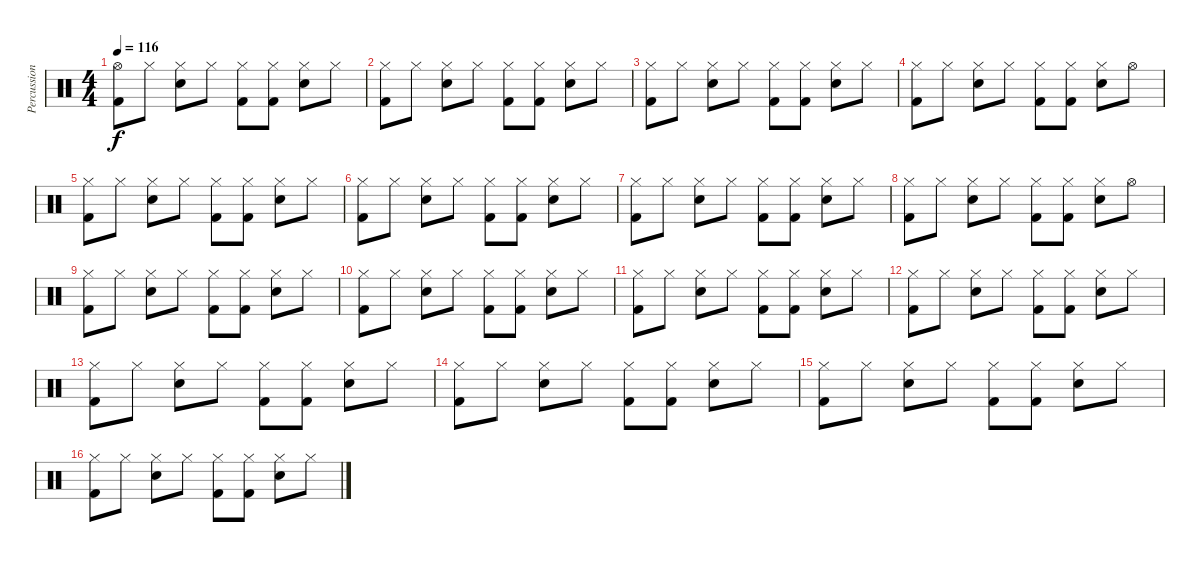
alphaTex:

\track ("Percussion" "Percussion") {instrument percussion}
\staff {score}
\articulation defaults
\ts (4 4)
\tempo 116
\clef neutral
\ks c
("Hi-Hat (open)" "Kick (hit) 2").8{dy f} "Hi-Hat (closed)".8 ("Hi-Hat (closed)" "Snare (hit) 2").8 "Hi-Hat (closed)".8 ("Hi-Hat (closed)" "Kick (hit) 2").8 ("Hi-Hat (closed)" "Kick (hit) 2").8 ("Hi-Hat (closed)" "Snare (hit) 2").8 "Hi-Hat (closed)".8 |
("Hi-Hat (closed)" "Kick (hit) 2").8 "Hi-Hat (closed)".8 ("Hi-Hat (closed)" "Snare (hit) 2").8 "Hi-Hat (closed)".8 ("Hi-Hat (closed)" "Kick (hit) 2").8 ("Hi-Hat (closed)" "Kick (hit) 2").8 ("Hi-Hat (closed)" "Snare (hit) 2").8 "Hi-Hat (closed)".8 |
("Hi-Hat (closed)" "Kick (hit) 2").8 "Hi-Hat (closed)".8 ("Hi-Hat (closed)" "Snare (hit) 2").8 "Hi-Hat (closed)".8 ("Hi-Hat (closed)" "Kick (hit) 2").8 ("Hi-Hat (closed)" "Kick (hit) 2").8 ("Hi-Hat (closed)" "Snare (hit) 2").8 "Hi-Hat (closed)".8 |
("Hi-Hat (closed)" "Kick (hit) 2").8 "Hi-Hat (closed)".8 ("Hi-Hat (closed)" "Snare (hit) 2").8 "Hi-Hat (closed)".8 ("Hi-Hat (closed)" "Kick (hit) 2").8 ("Hi-Hat (closed)" "Kick (hit) 2").8 ("Hi-Hat (closed)" "Snare (hit) 2").8 "Hi-Hat (open)".8 |
("Hi-Hat (closed)" "Kick (hit) 2").8 "Hi-Hat (closed)".8 ("Hi-Hat (closed)" "Snare (hit) 2").8 "Hi-Hat (closed)".8 ("Hi-Hat (closed)" "Kick (hit) 2").8 ("Hi-Hat (closed)" "Kick (hit) 2").8 ("Hi-Hat (closed)" "Snare (hit) 2").8 "Hi-Hat (closed)".8 |
("Hi-Hat (closed)" "Kick (hit) 2").8 "Hi-Hat (closed)".8 ("Hi-Hat (closed)" "Snare (hit) 2").8 "Hi-Hat (closed)".8 ("Hi-Hat (closed)" "Kick (hit) 2").8 ("Hi-Hat (closed)" "Kick (hit) 2").8 ("Hi-Hat (closed)" "Snare (hit) 2").8 "Hi-Hat (closed)".8 |
("Hi-Hat (closed)" "Kick (hit) 2").8 "Hi-Hat (closed)".8 ("Hi-Hat (closed)" "Snare (hit) 2").8 "Hi-Hat (closed)".8 ("Hi-Hat (closed)" "Kick (hit) 2").8 ("Hi-Hat (closed)" "Kick (hit) 2").8 ("Hi-Hat (closed)" "Snare (hit) 2").8 "Hi-Hat (closed)".8 |
("Hi-Hat (closed)" "Kick (hit) 2").8 "Hi-Hat (closed)".8 ("Hi-Hat (closed)" "Snare (hit) 2").8 "Hi-Hat (closed)".8 ("Hi-Hat (closed)" "Kick (hit) 2").8 ("Hi-Hat (closed)" "Kick (hit) 2").8 ("Hi-Hat (closed)" "Snare (hit) 2").8 "Hi-Hat (open)".8 |
("Hi-Hat (closed)" "Kick (hit) 2").8 "Hi-Hat (closed)".8 ("Hi-Hat (closed)" "Snare (hit) 2").8 "Hi-Hat (closed)".8 ("Hi-Hat (closed)" "Kick (hit) 2").8 ("Hi-Hat (closed)" "Kick (hit) 2").8 ("Hi-Hat (closed)" "Snare (hit) 2").8 "Hi-Hat (closed)".8 |
("Hi-Hat (closed)" "Kick (hit) 2").8 "Hi-Hat (closed)".8 ("Hi-Hat (closed)" "Snare (hit) 2").8 "Hi-Hat (closed)".8 ("Hi-Hat (closed)" "Kick (hit) 2").8 ("Hi-Hat (closed)" "Kick (hit) 2").8 ("Hi-Hat (closed)" "Snare (hit) 2").8 "Hi-Hat (closed)".8 |
("Hi-Hat (closed)" "Kick (hit) 2").8 "Hi-Hat (closed)".8 ("Hi-Hat (closed)" "Snare (hit) 2").8 "Hi-Hat (closed)".8 ("Hi-Hat (closed)" "Kick (hit) 2").8 ("Hi-Hat (closed)" "Kick (hit) 2").8 ("Hi-Hat (closed)" "Snare (hit) 2").8 "Hi-Hat (closed)".8 |
("Hi-Hat (closed)" "Kick (hit) 2").8 "Hi-Hat (closed)".8 ("Hi-Hat (closed)" "Snare (hit) 2").8 "Hi-Hat (closed)".8 ("Hi-Hat (closed)" "Kick (hit) 2").8 ("Hi-Hat (closed)" "Kick (hit) 2").8 ("Hi-Hat (closed)" "Snare (hit) 2").8 "Hi-Hat (closed)".8 |
("Hi-Hat (closed)" "Kick (hit) 2").8 "Hi-Hat (closed)".8 ("Hi-Hat (closed)" "Snare (hit) 2").8 "Hi-Hat (closed)".8 ("Hi-Hat (closed)" "Kick (hit) 2").8 ("Hi-Hat (closed)" "Kick (hit) 2").8 ("Hi-Hat (closed)" "Snare (hit) 2").8 "Hi-Hat (closed)".8 |
("Hi-Hat (closed)" "Kick (hit) 2").8 "Hi-Hat (closed)".8 ("Hi-Hat (closed)" "Snare (hit) 2").8 "Hi-Hat (closed)".8 ("Hi-Hat (closed)" "Kick (hit) 2").8 ("Hi-Hat (closed)" "Kick (hit) 2").8 ("Hi-Hat (closed)" "Snare (hit) 2").8 "Hi-Hat (closed)".8 |
("Hi-Hat (closed)" "Kick (hit) 2").8 "Hi-Hat (closed)".8 ("Hi-Hat (closed)" "Snare (hit) 2").8 "Hi-Hat (closed)".8 ("Hi-Hat (closed)" "Kick (hit) 2").8 ("Hi-Hat (closed)" "Kick (hit) 2").8 ("Hi-Hat (closed)" "Snare (hit) 2").8 "Hi-Hat (closed)".8 |
("Hi-Hat (closed)" "Kick (hit) 2").8 "Hi-Hat (closed)".8 ("Hi-Hat (closed)" "Snare (hit) 2").8 "Hi-Hat (closed)".8 ("Hi-Hat (closed)" "Kick (hit) 2").8 ("Hi-Hat (closed)" "Kick (hit) 2").8 ("Hi-Hat (closed)" "Snare (hit) 2").8 "Hi-Hat (closed)".8
